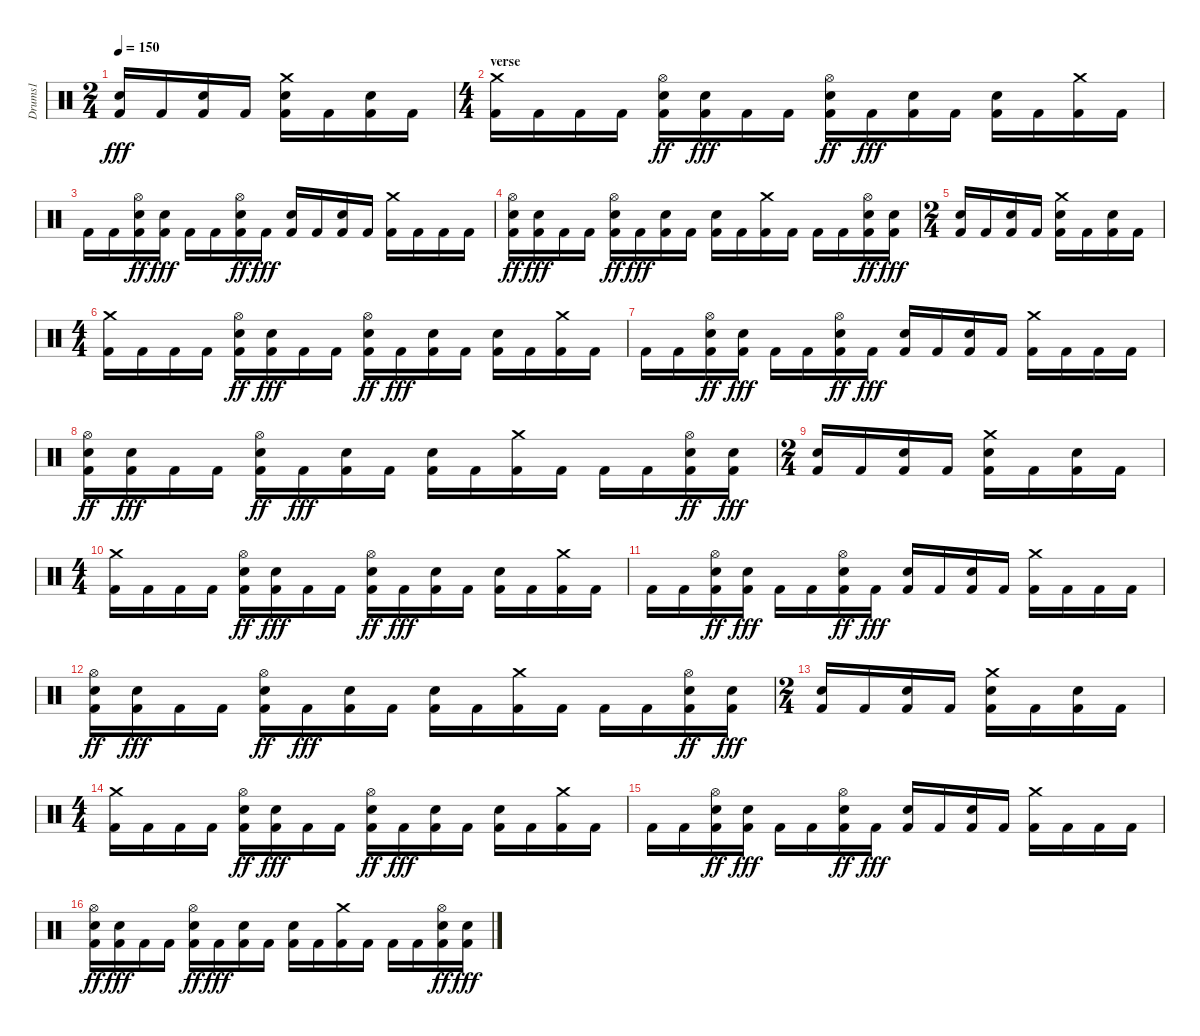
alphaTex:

\track ("Drums1" "Drums1") {instrument percussion}
\staff {score}
\articulation defaults
\ts (2 4)
\tempo 150
\clef neutral
\ks c
("Kick (hit) 2" "Electric Snare (hit)").16{dy fff} "Kick (hit) 2".16 ("Kick (hit) 2" "Electric Snare (hit)").16 "Kick (hit) 2".16 ("Kick (hit) 2" "Electric Snare (hit)" "Crash medium (hit)").16 "Kick (hit) 2".16 ("Kick (hit) 2" "Electric Snare (hit)").16 "Kick (hit) 2".16 |
\ts (4 4)
\section ("" "verse")
("Crash medium (hit)" "Kick (hit) 2").16 "Kick (hit) 2".16 "Kick (hit) 2".16 "Kick (hit) 2".16 ("Electric Snare (hit)" "Kick (hit) 2" "Hi-Hat (open)").16{dy ff} ("Electric Snare (hit)" "Kick (hit) 2").16{dy fff} "Kick (hit) 2".16 "Kick (hit) 2".16 ("Electric Snare (hit)" "Kick (hit) 2" "Hi-Hat (open)").16{dy ff} "Kick (hit) 2".16{dy fff} ("Electric Snare (hit)" "Kick (hit) 2").16 "Kick (hit) 2".16 ("Electric Snare (hit)" "Kick (hit) 2").16 "Kick (hit) 2".16 ("Crash medium (hit)" "Kick (hit) 2").16 "Kick (hit) 2".16 |
"Kick (hit) 2".16 "Kick (hit) 2".16 ("Electric Snare (hit)" "Kick (hit) 2" "Hi-Hat (open)").16{dy ff} ("Electric Snare (hit)" "Kick (hit) 2").16{dy fff} "Kick (hit) 2".16 "Kick (hit) 2".16 ("Electric Snare (hit)" "Kick (hit) 2" "Hi-Hat (open)").16{dy ff} "Kick (hit) 2".16{dy fff} ("Electric Snare (hit)" "Kick (hit) 2").16 "Kick (hit) 2".16 ("Electric Snare (hit)" "Kick (hit) 2").16 "Kick (hit) 2".16 ("Crash medium (hit)" "Kick (hit) 2").16 "Kick (hit) 2".16 "Kick (hit) 2".16 "Kick (hit) 2".16 |
("Electric Snare (hit)" "Kick (hit) 2" "Hi-Hat (open)").16{dy ff} ("Electric Snare (hit)" "Kick (hit) 2").16{dy fff} "Kick (hit) 2".16 "Kick (hit) 2".16 ("Electric Snare (hit)" "Kick (hit) 2" "Hi-Hat (open)").16{dy ff} "Kick (hit) 2".16{dy fff} ("Electric Snare (hit)" "Kick (hit) 2").16 "Kick (hit) 2".16 ("Electric Snare (hit)" "Kick (hit) 2").16 "Kick (hit) 2".16 ("Crash medium (hit)" "Kick (hit) 2").16 "Kick (hit) 2".16 "Kick (hit) 2".16 "Kick (hit) 2".16 ("Electric Snare (hit)" "Kick (hit) 2" "Hi-Hat (open)").16{dy ff} ("Electric Snare (hit)" "Kick (hit) 2").16{dy fff} |
\ts (2 4)
("Kick (hit) 2" "Electric Snare (hit)").16 "Kick (hit) 2".16 ("Kick (hit) 2" "Electric Snare (hit)").16 "Kick (hit) 2".16 ("Kick (hit) 2" "Electric Snare (hit)" "Crash medium (hit)").16 "Kick (hit) 2".16 ("Kick (hit) 2" "Electric Snare (hit)").16 "Kick (hit) 2".16 |
\ts (4 4)
("Crash medium (hit)" "Kick (hit) 2").16 "Kick (hit) 2".16 "Kick (hit) 2".16 "Kick (hit) 2".16 ("Electric Snare (hit)" "Kick (hit) 2" "Hi-Hat (open)").16{dy ff} ("Electric Snare (hit)" "Kick (hit) 2").16{dy fff} "Kick (hit) 2".16 "Kick (hit) 2".16 ("Electric Snare (hit)" "Kick (hit) 2" "Hi-Hat (open)").16{dy ff} "Kick (hit) 2".16{dy fff} ("Electric Snare (hit)" "Kick (hit) 2").16 "Kick (hit) 2".16 ("Electric Snare (hit)" "Kick (hit) 2").16 "Kick (hit) 2".16 ("Crash medium (hit)" "Kick (hit) 2").16 "Kick (hit) 2".16 |
"Kick (hit) 2".16 "Kick (hit) 2".16 ("Electric Snare (hit)" "Kick (hit) 2" "Hi-Hat (open)").16{dy ff} ("Electric Snare (hit)" "Kick (hit) 2").16{dy fff} "Kick (hit) 2".16 "Kick (hit) 2".16 ("Electric Snare (hit)" "Kick (hit) 2" "Hi-Hat (open)").16{dy ff} "Kick (hit) 2".16{dy fff} ("Electric Snare (hit)" "Kick (hit) 2").16 "Kick (hit) 2".16 ("Electric Snare (hit)" "Kick (hit) 2").16 "Kick (hit) 2".16 ("Crash medium (hit)" "Kick (hit) 2").16 "Kick (hit) 2".16 "Kick (hit) 2".16 "Kick (hit) 2".16 |
("Electric Snare (hit)" "Kick (hit) 2" "Hi-Hat (open)").16{dy ff} ("Electric Snare (hit)" "Kick (hit) 2").16{dy fff} "Kick (hit) 2".16 "Kick (hit) 2".16 ("Electric Snare (hit)" "Kick (hit) 2" "Hi-Hat (open)").16{dy ff} "Kick (hit) 2".16{dy fff} ("Electric Snare (hit)" "Kick (hit) 2").16 "Kick (hit) 2".16 ("Electric Snare (hit)" "Kick (hit) 2").16 "Kick (hit) 2".16 ("Crash medium (hit)" "Kick (hit) 2").16 "Kick (hit) 2".16 "Kick (hit) 2".16 "Kick (hit) 2".16 ("Electric Snare (hit)" "Kick (hit) 2" "Hi-Hat (open)").16{dy ff} ("Electric Snare (hit)" "Kick (hit) 2").16{dy fff} |
\ts (2 4)
("Kick (hit) 2" "Electric Snare (hit)").16 "Kick (hit) 2".16 ("Kick (hit) 2" "Electric Snare (hit)").16 "Kick (hit) 2".16 ("Kick (hit) 2" "Electric Snare (hit)" "Crash medium (hit)").16 "Kick (hit) 2".16 ("Kick (hit) 2" "Electric Snare (hit)").16 "Kick (hit) 2".16 |
\ts (4 4)
("Crash medium (hit)" "Kick (hit) 2").16 "Kick (hit) 2".16 "Kick (hit) 2".16 "Kick (hit) 2".16 ("Electric Snare (hit)" "Kick (hit) 2" "Hi-Hat (open)").16{dy ff} ("Electric Snare (hit)" "Kick (hit) 2").16{dy fff} "Kick (hit) 2".16 "Kick (hit) 2".16 ("Electric Snare (hit)" "Kick (hit) 2" "Hi-Hat (open)").16{dy ff} "Kick (hit) 2".16{dy fff} ("Electric Snare (hit)" "Kick (hit) 2").16 "Kick (hit) 2".16 ("Electric Snare (hit)" "Kick (hit) 2").16 "Kick (hit) 2".16 ("Crash medium (hit)" "Kick (hit) 2").16 "Kick (hit) 2".16 |
"Kick (hit) 2".16 "Kick (hit) 2".16 ("Electric Snare (hit)" "Kick (hit) 2" "Hi-Hat (open)").16{dy ff} ("Electric Snare (hit)" "Kick (hit) 2").16{dy fff} "Kick (hit) 2".16 "Kick (hit) 2".16 ("Electric Snare (hit)" "Kick (hit) 2" "Hi-Hat (open)").16{dy ff} "Kick (hit) 2".16{dy fff} ("Electric Snare (hit)" "Kick (hit) 2").16 "Kick (hit) 2".16 ("Electric Snare (hit)" "Kick (hit) 2").16 "Kick (hit) 2".16 ("Crash medium (hit)" "Kick (hit) 2").16 "Kick (hit) 2".16 "Kick (hit) 2".16 "Kick (hit) 2".16 |
("Electric Snare (hit)" "Kick (hit) 2" "Hi-Hat (open)").16{dy ff} ("Electric Snare (hit)" "Kick (hit) 2").16{dy fff} "Kick (hit) 2".16 "Kick (hit) 2".16 ("Electric Snare (hit)" "Kick (hit) 2" "Hi-Hat (open)").16{dy ff} "Kick (hit) 2".16{dy fff} ("Electric Snare (hit)" "Kick (hit) 2").16 "Kick (hit) 2".16 ("Electric Snare (hit)" "Kick (hit) 2").16 "Kick (hit) 2".16 ("Crash medium (hit)" "Kick (hit) 2").16 "Kick (hit) 2".16 "Kick (hit) 2".16 "Kick (hit) 2".16 ("Electric Snare (hit)" "Kick (hit) 2" "Hi-Hat (open)").16{dy ff} ("Electric Snare (hit)" "Kick (hit) 2").16{dy fff} |
\ts (2 4)
("Kick (hit) 2" "Electric Snare (hit)").16 "Kick (hit) 2".16 ("Kick (hit) 2" "Electric Snare (hit)").16 "Kick (hit) 2".16 ("Kick (hit) 2" "Electric Snare (hit)" "Crash medium (hit)").16 "Kick (hit) 2".16 ("Kick (hit) 2" "Electric Snare (hit)").16 "Kick (hit) 2".16 |
\ts (4 4)
("Crash medium (hit)" "Kick (hit) 2").16 "Kick (hit) 2".16 "Kick (hit) 2".16 "Kick (hit) 2".16 ("Electric Snare (hit)" "Kick (hit) 2" "Hi-Hat (open)").16{dy ff} ("Electric Snare (hit)" "Kick (hit) 2").16{dy fff} "Kick (hit) 2".16 "Kick (hit) 2".16 ("Electric Snare (hit)" "Kick (hit) 2" "Hi-Hat (open)").16{dy ff} "Kick (hit) 2".16{dy fff} ("Electric Snare (hit)" "Kick (hit) 2").16 "Kick (hit) 2".16 ("Electric Snare (hit)" "Kick (hit) 2").16 "Kick (hit) 2".16 ("Crash medium (hit)" "Kick (hit) 2").16 "Kick (hit) 2".16 |
"Kick (hit) 2".16 "Kick (hit) 2".16 ("Electric Snare (hit)" "Kick (hit) 2" "Hi-Hat (open)").16{dy ff} ("Electric Snare (hit)" "Kick (hit) 2").16{dy fff} "Kick (hit) 2".16 "Kick (hit) 2".16 ("Electric Snare (hit)" "Kick (hit) 2" "Hi-Hat (open)").16{dy ff} "Kick (hit) 2".16{dy fff} ("Electric Snare (hit)" "Kick (hit) 2").16 "Kick (hit) 2".16 ("Electric Snare (hit)" "Kick (hit) 2").16 "Kick (hit) 2".16 ("Crash medium (hit)" "Kick (hit) 2").16 "Kick (hit) 2".16 "Kick (hit) 2".16 "Kick (hit) 2".16 |
("Electric Snare (hit)" "Kick (hit) 2" "Hi-Hat (open)").16{dy ff} ("Electric Snare (hit)" "Kick (hit) 2").16{dy fff} "Kick (hit) 2".16 "Kick (hit) 2".16 ("Electric Snare (hit)" "Kick (hit) 2" "Hi-Hat (open)").16{dy ff} "Kick (hit) 2".16{dy fff} ("Electric Snare (hit)" "Kick (hit) 2").16 "Kick (hit) 2".16 ("Electric Snare (hit)" "Kick (hit) 2").16 "Kick (hit) 2".16 ("Crash medium (hit)" "Kick (hit) 2").16 "Kick (hit) 2".16 "Kick (hit) 2".16 "Kick (hit) 2".16 ("Electric Snare (hit)" "Kick (hit) 2" "Hi-Hat (open)").16{dy ff} ("Electric Snare (hit)" "Kick (hit) 2").16{dy fff}
